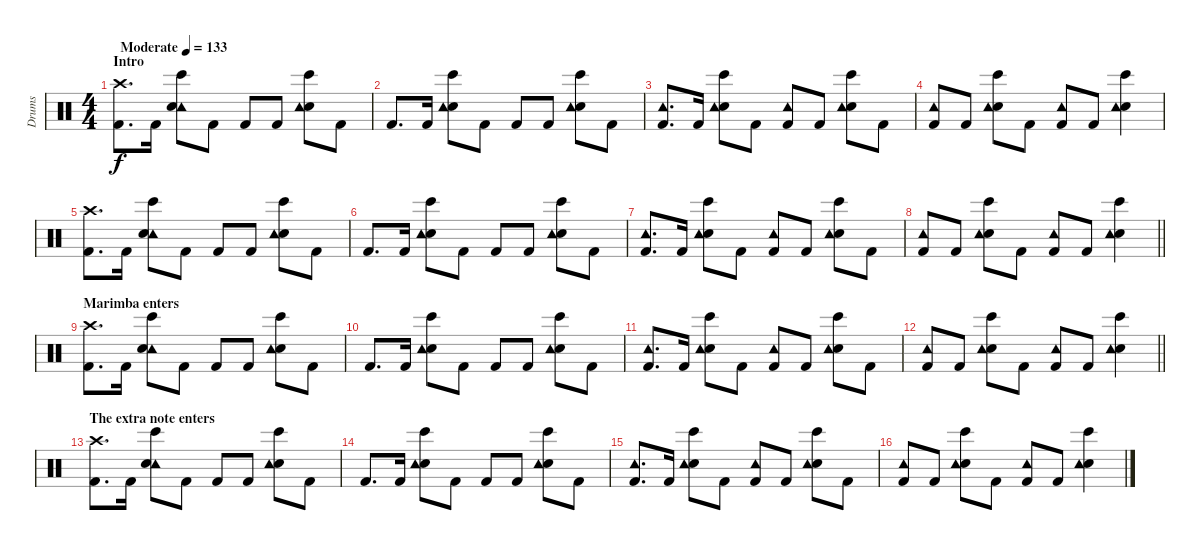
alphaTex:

\track ("Drums" "Drums") {instrument percussion}
\staff {score}
\articulation defaults
\ts (4 4)
\section ("" "Intro")
\tempo (133 "Moderate")
\clef neutral
\ks c
("Crash high (hit)" "Kick (hit) 2").8{d dy f} "Kick (hit) 2".16 ("Bongo High (hit)" "Tambourine (hit)" "Electric Snare (hit)").8 "Kick (hit) 2".8 "Kick (hit) 2".8 "Kick (hit) 2".8 ("Electric Snare (hit)" "Tambourine (hit)" "Bongo High (hit)").8 "Kick (hit) 2".8 |
"Kick (hit) 2".8{d} "Kick (hit) 2".16 ("Electric Snare (hit)" "Tambourine (hit)" "Bongo High (hit)").8 "Kick (hit) 2".8 "Kick (hit) 2".8 "Kick (hit) 2".8 ("Electric Snare (hit)" "Tambourine (hit)" "Bongo High (hit)").8 "Kick (hit) 2".8 |
("Tambourine (hit)" "Kick (hit) 2").8{d} "Kick (hit) 2".16 ("Electric Snare (hit)" "Tambourine (hit)" "Bongo High (hit)").8 "Kick (hit) 2".8 ("Tambourine (hit)" "Kick (hit) 2").8 "Kick (hit) 2".8 ("Electric Snare (hit)" "Tambourine (hit)" "Bongo High (hit)").8 "Kick (hit) 2".8 |
("Tambourine (hit)" "Kick (hit) 2").8 "Kick (hit) 2".8 ("Electric Snare (hit)" "Tambourine (hit)" "Bongo High (hit)").8 "Kick (hit) 2".8 ("Tambourine (hit)" "Kick (hit) 2").8 "Kick (hit) 2".8 ("Electric Snare (hit)" "Bongo High (hit)" "Tambourine (hit)").4 |
("Crash high (hit)" "Kick (hit) 2").8{d} "Kick (hit) 2".16 ("Bongo High (hit)" "Tambourine (hit)" "Electric Snare (hit)").8 "Kick (hit) 2".8 "Kick (hit) 2".8 "Kick (hit) 2".8 ("Electric Snare (hit)" "Tambourine (hit)" "Bongo High (hit)").8 "Kick (hit) 2".8 |
"Kick (hit) 2".8{d} "Kick (hit) 2".16 ("Electric Snare (hit)" "Tambourine (hit)" "Bongo High (hit)").8 "Kick (hit) 2".8 "Kick (hit) 2".8 "Kick (hit) 2".8 ("Electric Snare (hit)" "Tambourine (hit)" "Bongo High (hit)").8 "Kick (hit) 2".8 |
("Tambourine (hit)" "Kick (hit) 2").8{d} "Kick (hit) 2".16 ("Electric Snare (hit)" "Tambourine (hit)" "Bongo High (hit)").8 "Kick (hit) 2".8 ("Tambourine (hit)" "Kick (hit) 2").8 "Kick (hit) 2".8 ("Electric Snare (hit)" "Tambourine (hit)" "Bongo High (hit)").8 "Kick (hit) 2".8 |
\barLineRight lightlight
("Tambourine (hit)" "Kick (hit) 2").8 "Kick (hit) 2".8 ("Electric Snare (hit)" "Tambourine (hit)" "Bongo High (hit)").8 "Kick (hit) 2".8 ("Tambourine (hit)" "Kick (hit) 2").8 "Kick (hit) 2".8 ("Electric Snare (hit)" "Bongo High (hit)" "Tambourine (hit)").4 |
\section ("" "Marimba enters")
("Crash high (hit)" "Kick (hit) 2").8{d} "Kick (hit) 2".16 ("Bongo High (hit)" "Tambourine (hit)" "Electric Snare (hit)").8 "Kick (hit) 2".8 "Kick (hit) 2".8 "Kick (hit) 2".8 ("Electric Snare (hit)" "Tambourine (hit)" "Bongo High (hit)").8 "Kick (hit) 2".8 |
"Kick (hit) 2".8{d} "Kick (hit) 2".16 ("Electric Snare (hit)" "Tambourine (hit)" "Bongo High (hit)").8 "Kick (hit) 2".8 "Kick (hit) 2".8 "Kick (hit) 2".8 ("Electric Snare (hit)" "Tambourine (hit)" "Bongo High (hit)").8 "Kick (hit) 2".8 |
("Tambourine (hit)" "Kick (hit) 2").8{d} "Kick (hit) 2".16 ("Electric Snare (hit)" "Tambourine (hit)" "Bongo High (hit)").8 "Kick (hit) 2".8 ("Tambourine (hit)" "Kick (hit) 2").8 "Kick (hit) 2".8 ("Electric Snare (hit)" "Tambourine (hit)" "Bongo High (hit)").8 "Kick (hit) 2".8 |
\barLineRight lightlight
("Tambourine (hit)" "Kick (hit) 2").8 "Kick (hit) 2".8 ("Electric Snare (hit)" "Tambourine (hit)" "Bongo High (hit)").8 "Kick (hit) 2".8 ("Tambourine (hit)" "Kick (hit) 2").8 "Kick (hit) 2".8 ("Electric Snare (hit)" "Bongo High (hit)" "Tambourine (hit)").4 |
\section ("" "The extra note enters")
("Crash high (hit)" "Kick (hit) 2").8{d} "Kick (hit) 2".16 ("Bongo High (hit)" "Tambourine (hit)" "Electric Snare (hit)").8 "Kick (hit) 2".8 "Kick (hit) 2".8 "Kick (hit) 2".8 ("Electric Snare (hit)" "Tambourine (hit)" "Bongo High (hit)").8 "Kick (hit) 2".8 |
"Kick (hit) 2".8{d} "Kick (hit) 2".16 ("Electric Snare (hit)" "Tambourine (hit)" "Bongo High (hit)").8 "Kick (hit) 2".8 "Kick (hit) 2".8 "Kick (hit) 2".8 ("Electric Snare (hit)" "Tambourine (hit)" "Bongo High (hit)").8 "Kick (hit) 2".8 |
("Tambourine (hit)" "Kick (hit) 2").8{d} "Kick (hit) 2".16 ("Electric Snare (hit)" "Tambourine (hit)" "Bongo High (hit)").8 "Kick (hit) 2".8 ("Tambourine (hit)" "Kick (hit) 2").8 "Kick (hit) 2".8 ("Electric Snare (hit)" "Tambourine (hit)" "Bongo High (hit)").8 "Kick (hit) 2".8 |
("Tambourine (hit)" "Kick (hit) 2").8 "Kick (hit) 2".8 ("Electric Snare (hit)" "Tambourine (hit)" "Bongo High (hit)").8 "Kick (hit) 2".8 ("Tambourine (hit)" "Kick (hit) 2").8 "Kick (hit) 2".8 ("Electric Snare (hit)" "Bongo High (hit)" "Tambourine (hit)").4
